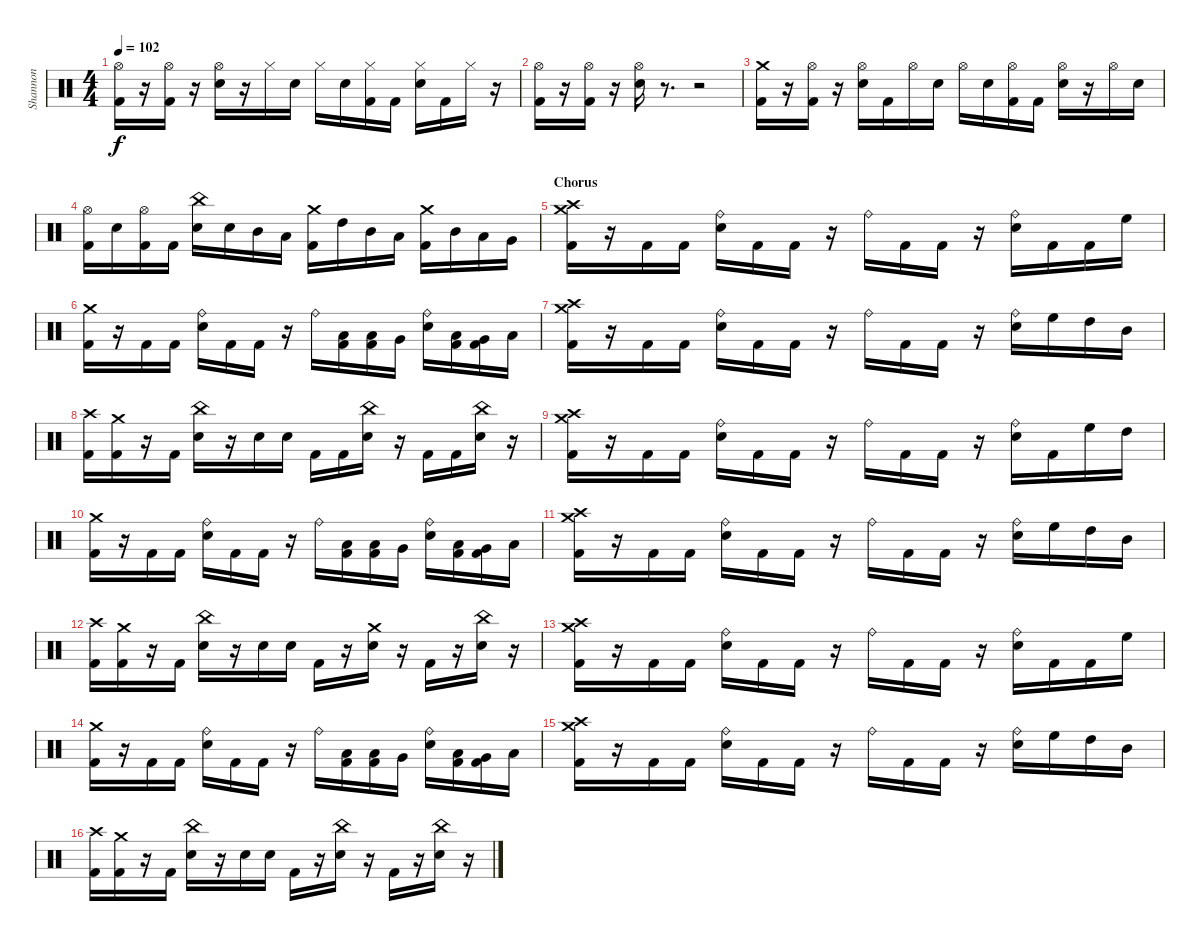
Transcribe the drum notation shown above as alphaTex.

\track ("Shannon" "Shannon") {instrument percussion}
\staff {score}
\articulation defaults
\ts (4 4)
\tempo 102
\clef neutral
\ks c
("Hi-Hat (open)" "Kick (hit) 2").16{dy f} r.16 ("Hi-Hat (open)" "Kick (hit) 2").16 r.16 ("Hi-Hat (open)" "Electric Snare (hit)").16 r.16 "Hi-Hat (closed)".16 "Electric Snare (hit)".16 "Hi-Hat (closed)".16 "Electric Snare (hit)".16 ("Hi-Hat (closed)" "Kick (hit) 2").16 "Kick (hit) 2".16 ("Hi-Hat (closed)" "Electric Snare (hit)").16 "Kick (hit) 2".16 "Hi-Hat (closed)".16 r.16 |
("Hi-Hat (open)" "Kick (hit) 2").16 r.16 ("Hi-Hat (open)" "Kick (hit) 2").16 r.16 ("Hi-Hat (open)" "Electric Snare (hit)").16 r.8{d} r.2 |
("Crash medium (hit)" "Kick (hit) 2").16 r.16 ("Hi-Hat (open)" "Kick (hit) 2").16 r.16 ("Hi-Hat (open)" "Electric Snare (hit)").16 "Kick (hit) 2".16 "Hi-Hat (open)".16 "Electric Snare (hit)".16 "Hi-Hat (open)".16 "Electric Snare (hit)".16 ("Hi-Hat (open)" "Kick (hit) 2").16 "Kick (hit) 2".16 ("Hi-Hat (open)" "Electric Snare (hit)").16 r.16 "Hi-Hat (open)".16 "Electric Snare (hit)".16 |
("Hi-Hat (open)" "Kick (hit) 2").16 "Electric Snare (hit)".16 ("Hi-Hat (open)" "Kick (hit) 2").16 "Kick (hit) 2".16 ("China (hit)" "Electric Snare (hit)").16 "Electric Snare (hit)".16 "Mid Tom (hit)".16 "Low Tom (hit)".16 ("Crash medium (hit)" "Kick (hit) 2").16 "High Tom (hit)".16 "Mid Tom (hit)".16 "Low Tom (hit)".16 ("Crash medium (hit)" "Kick (hit) 2").16 "Mid Tom (hit)".16 "Low Tom (hit)".16 "Very Low Tom (hit)".16 |
\section ("" "Chorus")
("Crash high (hit)" "Crash medium (hit)" "Kick (hit) 2").16 r.16 "Kick (hit) 2".16 "Kick (hit) 2".16 ("Ride (bell)" "Electric Snare (hit)").16 "Kick (hit) 2".16 "Kick (hit) 2".16 r.16 "Ride (bell)".16 "Kick (hit) 2".16 "Kick (hit) 2".16 r.16 ("Ride (bell)" "Electric Snare (hit)").16 "Kick (hit) 2".16 "Kick (hit) 2".16 "High Floor Tom (hit)".16 |
("Crash medium (hit)" "Kick (hit) 2").16 r.16 "Kick (hit) 2".16 "Kick (hit) 2".16 ("Ride (bell)" "Electric Snare (hit)").16 "Kick (hit) 2".16 "Kick (hit) 2".16 r.16 "Ride (bell)".16 ("Low Tom (hit)" "Kick (hit) 2").16 ("Low Tom (hit)" "Kick (hit) 2").16 "Very Low Tom (hit)".16 ("Ride (bell)" "Electric Snare (hit)").16 ("Low Tom (hit)" "Kick (hit) 2").16 ("Very Low Tom (hit)" "Kick (hit) 2").16 "Low Floor Tom (hit)".16 |
("Crash high (hit)" "Crash medium (hit)" "Kick (hit) 2").16 r.16 "Kick (hit) 2".16 "Kick (hit) 2".16 ("Ride (bell)" "Electric Snare (hit)").16 "Kick (hit) 2".16 "Kick (hit) 2".16 r.16 "Ride (bell)".16 "Kick (hit) 2".16 "Kick (hit) 2".16 r.16 ("Ride (bell)" "Electric Snare (hit)").16 "High Floor Tom (hit)".16 "High Tom (hit)".16 "Mid Tom (hit)".16 |
("Crash high (hit)" "Kick (hit) 2").16 ("Crash medium (hit)" "Kick (hit) 2").16 r.16 "Kick (hit) 2".16 ("China (hit)" "Electric Snare (hit)").16 r.16 "Electric Snare (hit)".16 "Electric Snare (hit)".16 "Kick (hit) 2".16 "Kick (hit) 2".16 ("China (hit)" "Electric Snare (hit)").16 r.16 "Kick (hit) 2".16 "Kick (hit) 2".16 ("China (hit)" "Electric Snare (hit)").16 r.16 |
("Crash high (hit)" "Crash medium (hit)" "Kick (hit) 2").16 r.16 "Kick (hit) 2".16 "Kick (hit) 2".16 ("Ride (bell)" "Electric Snare (hit)").16 "Kick (hit) 2".16 "Kick (hit) 2".16 r.16 "Ride (bell)".16 "Kick (hit) 2".16 "Kick (hit) 2".16 r.16 ("Ride (bell)" "Electric Snare (hit)").16 "Kick (hit) 2".16 "High Floor Tom (hit)".16 "High Tom (hit)".16 |
("Crash medium (hit)" "Kick (hit) 2").16 r.16 "Kick (hit) 2".16 "Kick (hit) 2".16 ("Ride (bell)" "Electric Snare (hit)").16 "Kick (hit) 2".16 "Kick (hit) 2".16 r.16 "Ride (bell)".16 ("Low Tom (hit)" "Kick (hit) 2").16 ("Low Tom (hit)" "Kick (hit) 2").16 "Very Low Tom (hit)".16 ("Ride (bell)" "Electric Snare (hit)").16 ("Low Tom (hit)" "Kick (hit) 2").16 ("Very Low Tom (hit)" "Kick (hit) 2").16 "Low Floor Tom (hit)".16 |
("Crash high (hit)" "Crash medium (hit)" "Kick (hit) 2").16 r.16 "Kick (hit) 2".16 "Kick (hit) 2".16 ("Ride (bell)" "Electric Snare (hit)").16 "Kick (hit) 2".16 "Kick (hit) 2".16 r.16 "Ride (bell)".16 "Kick (hit) 2".16 "Kick (hit) 2".16 r.16 ("Ride (bell)" "Electric Snare (hit)").16 "High Floor Tom (hit)".16 "High Tom (hit)".16 "Mid Tom (hit)".16 |
("Crash high (hit)" "Kick (hit) 2").16 ("Crash medium (hit)" "Kick (hit) 2").16 r.16 "Kick (hit) 2".16 ("China (hit)" "Electric Snare (hit)").16 r.16 "Electric Snare (hit)".16 "Electric Snare (hit)".16 "Kick (hit) 2".16 r.16 ("Crash medium (hit)" "Electric Snare (hit)").16 r.16 "Kick (hit) 2".16 r.16 ("China (hit)" "Electric Snare (hit)").16 r.16 |
("Crash high (hit)" "Crash medium (hit)" "Kick (hit) 2").16 r.16 "Kick (hit) 2".16 "Kick (hit) 2".16 ("Ride (bell)" "Electric Snare (hit)").16 "Kick (hit) 2".16 "Kick (hit) 2".16 r.16 "Ride (bell)".16 "Kick (hit) 2".16 "Kick (hit) 2".16 r.16 ("Ride (bell)" "Electric Snare (hit)").16 "Kick (hit) 2".16 "Kick (hit) 2".16 "High Floor Tom (hit)".16 |
("Crash medium (hit)" "Kick (hit) 2").16 r.16 "Kick (hit) 2".16 "Kick (hit) 2".16 ("Ride (bell)" "Electric Snare (hit)").16 "Kick (hit) 2".16 "Kick (hit) 2".16 r.16 "Ride (bell)".16 ("Low Tom (hit)" "Kick (hit) 2").16 ("Low Tom (hit)" "Kick (hit) 2").16 "Very Low Tom (hit)".16 ("Ride (bell)" "Electric Snare (hit)").16 ("Low Tom (hit)" "Kick (hit) 2").16 ("Very Low Tom (hit)" "Kick (hit) 2").16 "Low Floor Tom (hit)".16 |
("Crash high (hit)" "Crash medium (hit)" "Kick (hit) 2").16 r.16 "Kick (hit) 2".16 "Kick (hit) 2".16 ("Ride (bell)" "Electric Snare (hit)").16 "Kick (hit) 2".16 "Kick (hit) 2".16 r.16 "Ride (bell)".16 "Kick (hit) 2".16 "Kick (hit) 2".16 r.16 ("Ride (bell)" "Electric Snare (hit)").16 "High Floor Tom (hit)".16 "High Tom (hit)".16 "Mid Tom (hit)".16 |
("Crash high (hit)" "Kick (hit) 2").16 ("Crash medium (hit)" "Kick (hit) 2").16 r.16 "Kick (hit) 2".16 ("China (hit)" "Electric Snare (hit)").16 r.16 "Electric Snare (hit)".16 "Electric Snare (hit)".16 "Kick (hit) 2".16 r.16 ("China (hit)" "Electric Snare (hit)").16 r.16 "Kick (hit) 2".16 r.16 ("China (hit)" "Electric Snare (hit)").16 r.16
